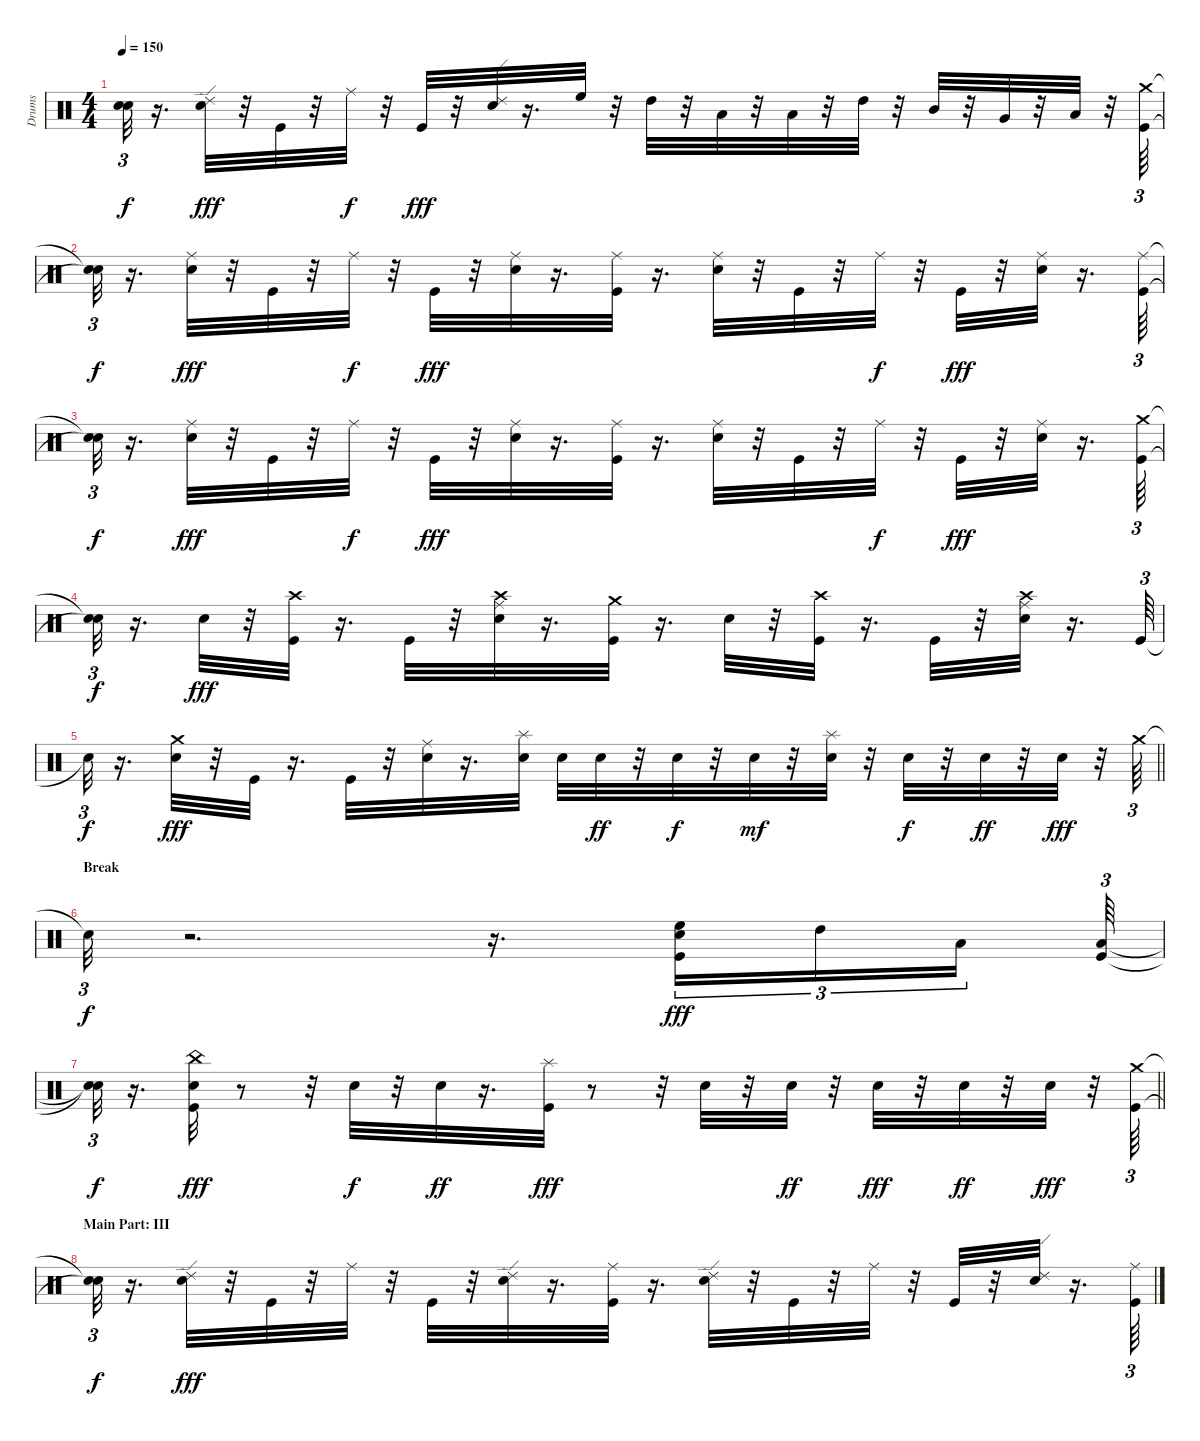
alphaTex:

\track ("Drums" "Drums") {instrument percussion}
\staff {score}
\articulation defaults
\ts (4 4)
\tempo 150
\clef neutral
\ks c
("Snare (hit)"{t} "Snare (hit)"{t}).32{tu (3 2) dy f} r.16{d} ("Electric Snare (hit)" "Ride (edge) 2").32{dy fff} r.32 "Kick (hit)".32 r.32 "Ride (middle)".32{dy f} r.32 "Kick (hit)".32{dy fff} r.32 ("Electric Snare (hit)" "Ride (edge) 2").32 r.16{d} "High Floor Tom (hit)".32 r.32 "High Tom (hit)".32 r.32 "Low Tom (hit)".32 r.32 "Low Floor Tom (hit)".32 r.32 "High Tom (hit)".32 r.32 "Mid Tom (hit)".32 r.32 "Very Low Tom (hit)".32 r.32 "Low Floor Tom (hit)".32 r.32 ("Crash medium (hit)" "Kick (hit)").64{tu (3 2)} |
("Snare (hit)"{t} "Snare (hit)"{t}).32{tu (3 2) dy f} r.16{d} ("Electric Snare (hit)" "Ride (middle)").32{dy fff} r.32 "Kick (hit)".32 r.32 "Ride (middle)".32{dy f} r.32 "Kick (hit)".32{dy fff} r.32 ("Electric Snare (hit)" "Ride (middle)").32 r.16{d} ("Ride (middle)" "Kick (hit)").32 r.16{d} ("Ride (middle)" "Electric Snare (hit)").32 r.32 "Kick (hit)".32 r.32 "Ride (middle)".32{dy f} r.32 "Kick (hit)".32{dy fff} r.32 ("Ride (middle)" "Electric Snare (hit)").32 r.16{d} ("Kick (hit)" "Ride (middle)").64{tu (3 2)} |
("Snare (hit)"{t} "Snare (hit)"{t}).32{tu (3 2) dy f} r.16{d} ("Ride (middle)" "Electric Snare (hit)").32{dy fff} r.32 "Kick (hit)".32 r.32 "Ride (middle)".32{dy f} r.32 "Kick (hit)".32{dy fff} r.32 ("Ride (middle)" "Electric Snare (hit)").32 r.16{d} ("Kick (hit)" "Ride (middle)").32 r.16{d} ("Ride (middle)" "Electric Snare (hit)").32 r.32 "Kick (hit)".32 r.32 "Ride (middle)".32{dy f} r.32 "Kick (hit)".32{dy fff} r.32 ("Ride (middle)" "Electric Snare (hit)").32 r.16{d} ("Crash medium (hit)" "Kick (hit)").64{tu (3 2)} |
("Snare (hit)"{t} "Snare (hit)"{t}).32{tu (3 2) dy f} r.16{d} "Electric Snare (hit)".32{dy fff} r.32 ("Crash high (hit)" "Kick (hit)").32 r.16{d} "Kick (hit)".32 r.32 ("Crash high (hit)" "Electric Snare (hit)" "Ride (middle)").32 r.16{d} ("Crash medium (hit)" "Kick (hit)").32 r.16{d} "Electric Snare (hit)".32 r.32 ("Crash high (hit)" "Kick (hit)").32 r.16{d} "Kick (hit)".32 r.32 ("Crash high (hit)" "Electric Snare (hit)" "Ride (middle)").32 r.16{d} "Kick (hit)".64{tu (3 2)} |
\barLineRight lightlight "Snare (hit)"{t}.32{tu (3 2) dy f}
r.16{d} ("Electric Snare (hit)" "Crash medium (hit)").32{dy fff} r.32 "Kick (hit)".32 r.16{d} "Kick (hit)".32 r.32 ("Electric Snare (hit)" "Ride (middle)").32 r.16{d} ("Splash (hit)" "Electric Snare (hit)").32 "Electric Snare (hit)".32 "Electric Snare (hit)".32{dy ff} r.32 "Electric Snare (hit)".32{dy f} r.32 "Electric Snare (hit)".32{dy mf} r.32 ("Splash (hit)" "Electric Snare (hit)").32 r.32 "Electric Snare (hit)".32{dy f} r.32 "Electric Snare (hit)".32{dy ff} r.32 "Electric Snare (hit)".32{dy fff} r.32 "Crash medium (hit)".64{tu (3 2)} |
\section ("" "Break")
"Snare (hit)"{t}.32{tu (3 2) dy f} r.2{d} r.16{d} ("High Floor Tom (hit)" "Electric Snare (hit)" "Kick (hit)").16{tu (3 2) dy fff} "High Tom (hit)".16{tu (3 2)} "Low Tom (hit)".16{tu (3 2) beam splitsecondary} ("Low Floor Tom (hit)" "Kick (hit)").64{tu (3 2)} |
\barLineRight lightlight
("Snare (hit)"{t} "Snare (hit)"{t}).32{tu (3 2) dy f} r.16{d} ("Electric Snare (hit)" "China (hit)" "Kick (hit)").32{dy fff} r.8 r.32 "Electric Snare (hit)".32{dy f} r.32 "Electric Snare (hit)".32{dy ff} r.16{d} ("Kick (hit)" "Splash (hit)").32{dy fff} r.8 r.32 "Electric Snare (hit)".32 r.32 "Electric Snare (hit)".32{dy ff} r.32 "Electric Snare (hit)".32{dy fff} r.32 "Electric Snare (hit)".32{dy ff} r.32 "Electric Snare (hit)".32{dy fff} r.32 ("Kick (hit)" "Crash medium (hit)").64{tu (3 2)} |
\section ("" "Main Part: III")
("Snare (hit)"{t} "Snare (hit)"{t}).32{tu (3 2) dy f} r.16{d} ("Electric Snare (hit)" "Ride (edge) 2").32{dy fff} r.32 "Kick (hit)".32 r.32 "Ride (middle)".32 r.32 "Kick (hit)".32 r.32 ("Electric Snare (hit)" "Ride (edge) 2").32 r.16{d} ("Ride (middle)" "Kick (hit)").32 r.16{d} ("Electric Snare (hit)" "Ride (edge) 2").32 r.32 "Kick (hit)".32 r.32 "Ride (middle)".32 r.32 "Kick (hit)".32 r.32 ("Electric Snare (hit)" "Ride (edge) 2").32 r.16{d} ("Kick (hit)" "Ride (middle)").64{tu (3 2)}
